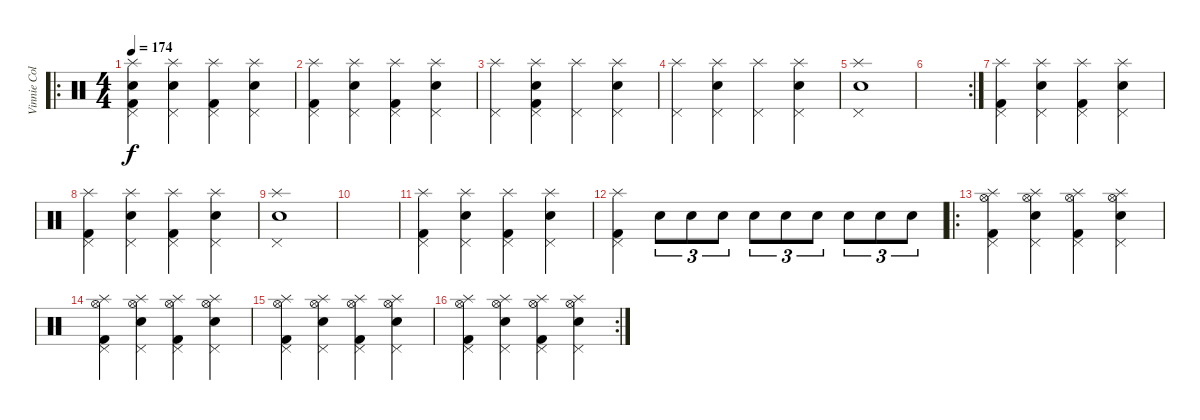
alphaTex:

\track ("Vinnie Colaiuta" "Vinnie Col") {instrument percussion}
\staff {score}
\articulation defaults
\ro
\ts (4 4)
\tempo 174
\clef neutral
\ks c
("Splash (hit)" "Snare (hit) 2" "Pedal Hi-Hat (hit)" "Kick (hit) 2").4{dy f} ("Splash (hit)" "Snare (hit) 2" "Pedal Hi-Hat (hit)").4 ("Splash (hit)" "Kick (hit) 2" "Pedal Hi-Hat (hit)").4 ("Splash (hit)" "Snare (hit) 2" "Pedal Hi-Hat (hit)").4 |
("Splash (hit)" "Kick (hit) 2" "Pedal Hi-Hat (hit)").4 ("Splash (hit)" "Snare (hit) 2" "Pedal Hi-Hat (hit)").4 ("Splash (hit)" "Kick (hit) 2" "Pedal Hi-Hat (hit)").4 ("Splash (hit)" "Snare (hit) 2" "Pedal Hi-Hat (hit)").4 |
("Splash (hit)" "Pedal Hi-Hat (hit)").4 ("Splash (hit)" "Kick (hit) 2" "Snare (hit) 2" "Pedal Hi-Hat (hit)").4 ("Splash (hit)" "Pedal Hi-Hat (hit)").4 ("Splash (hit)" "Snare (hit) 2" "Pedal Hi-Hat (hit)").4 |
("Splash (hit)" "Pedal Hi-Hat (hit)").4 ("Splash (hit)" "Snare (hit) 2" "Pedal Hi-Hat (hit)").4 ("Splash (hit)" "Pedal Hi-Hat (hit)").4 ("Splash (hit)" "Snare (hit) 2" "Pedal Hi-Hat (hit)").4 |
("Splash (hit)" "Pedal Hi-Hat (hit)" "Snare (hit) 2").1 |
\rc 2
|
("Splash (hit)" "Kick (hit) 2" "Pedal Hi-Hat (hit)").4 ("Splash (hit)" "Snare (hit) 2" "Pedal Hi-Hat (hit)").4 ("Splash (hit)" "Kick (hit) 2" "Pedal Hi-Hat (hit)").4 ("Splash (hit)" "Snare (hit) 2" "Pedal Hi-Hat (hit)").4 |
("Splash (hit)" "Kick (hit) 2" "Pedal Hi-Hat (hit)").4 ("Splash (hit)" "Snare (hit) 2" "Pedal Hi-Hat (hit)").4 ("Splash (hit)" "Kick (hit) 2" "Pedal Hi-Hat (hit)").4 ("Splash (hit)" "Snare (hit) 2" "Pedal Hi-Hat (hit)").4 |
("Splash (hit)" "Pedal Hi-Hat (hit)" "Snare (hit) 2").1 |
|
("Splash (hit)" "Kick (hit) 2" "Pedal Hi-Hat (hit)").4 ("Splash (hit)" "Snare (hit) 2" "Pedal Hi-Hat (hit)").4 ("Splash (hit)" "Kick (hit) 2" "Pedal Hi-Hat (hit)").4 ("Splash (hit)" "Snare (hit) 2" "Pedal Hi-Hat (hit)").4 |
("Splash (hit)" "Kick (hit) 2" "Pedal Hi-Hat (hit)").4 "Electric Snare (hit)".8{tu (3 2)} "Electric Snare (hit)".8{tu (3 2)} "Electric Snare (hit)".8{tu (3 2)} "Electric Snare (hit)".8{tu (3 2)} "Electric Snare (hit)".8{tu (3 2)} "Electric Snare (hit)".8{tu (3 2)} "Electric Snare (hit)".8{tu (3 2)} "Electric Snare (hit)".8{tu (3 2)} "Electric Snare (hit)".8{tu (3 2)} |
\ro
("Splash (hit)" "Kick (hit) 2" "Pedal Hi-Hat (hit)" "Hi-Hat (open)").4 ("Splash (hit)" "Snare (hit) 2" "Pedal Hi-Hat (hit)" "Hi-Hat (open)").4 ("Splash (hit)" "Kick (hit) 2" "Pedal Hi-Hat (hit)" "Hi-Hat (open)").4 ("Splash (hit)" "Snare (hit) 2" "Pedal Hi-Hat (hit)" "Hi-Hat (open)").4 |
("Splash (hit)" "Kick (hit) 2" "Pedal Hi-Hat (hit)" "Hi-Hat (open)").4 ("Splash (hit)" "Snare (hit) 2" "Pedal Hi-Hat (hit)" "Hi-Hat (open)").4 ("Splash (hit)" "Kick (hit) 2" "Pedal Hi-Hat (hit)" "Hi-Hat (open)").4 ("Splash (hit)" "Snare (hit) 2" "Pedal Hi-Hat (hit)" "Hi-Hat (open)").4 |
("Splash (hit)" "Kick (hit) 2" "Pedal Hi-Hat (hit)" "Hi-Hat (open)").4 ("Splash (hit)" "Snare (hit) 2" "Pedal Hi-Hat (hit)" "Hi-Hat (open)").4 ("Splash (hit)" "Kick (hit) 2" "Pedal Hi-Hat (hit)" "Hi-Hat (open)").4 ("Splash (hit)" "Snare (hit) 2" "Pedal Hi-Hat (hit)" "Hi-Hat (open)").4 |
\rc 2
("Splash (hit)" "Kick (hit) 2" "Pedal Hi-Hat (hit)" "Hi-Hat (open)").4 ("Splash (hit)" "Snare (hit) 2" "Pedal Hi-Hat (hit)" "Hi-Hat (open)").4 ("Splash (hit)" "Kick (hit) 2" "Pedal Hi-Hat (hit)" "Hi-Hat (open)").4 ("Splash (hit)" "Snare (hit) 2" "Pedal Hi-Hat (hit)" "Hi-Hat (open)").4
